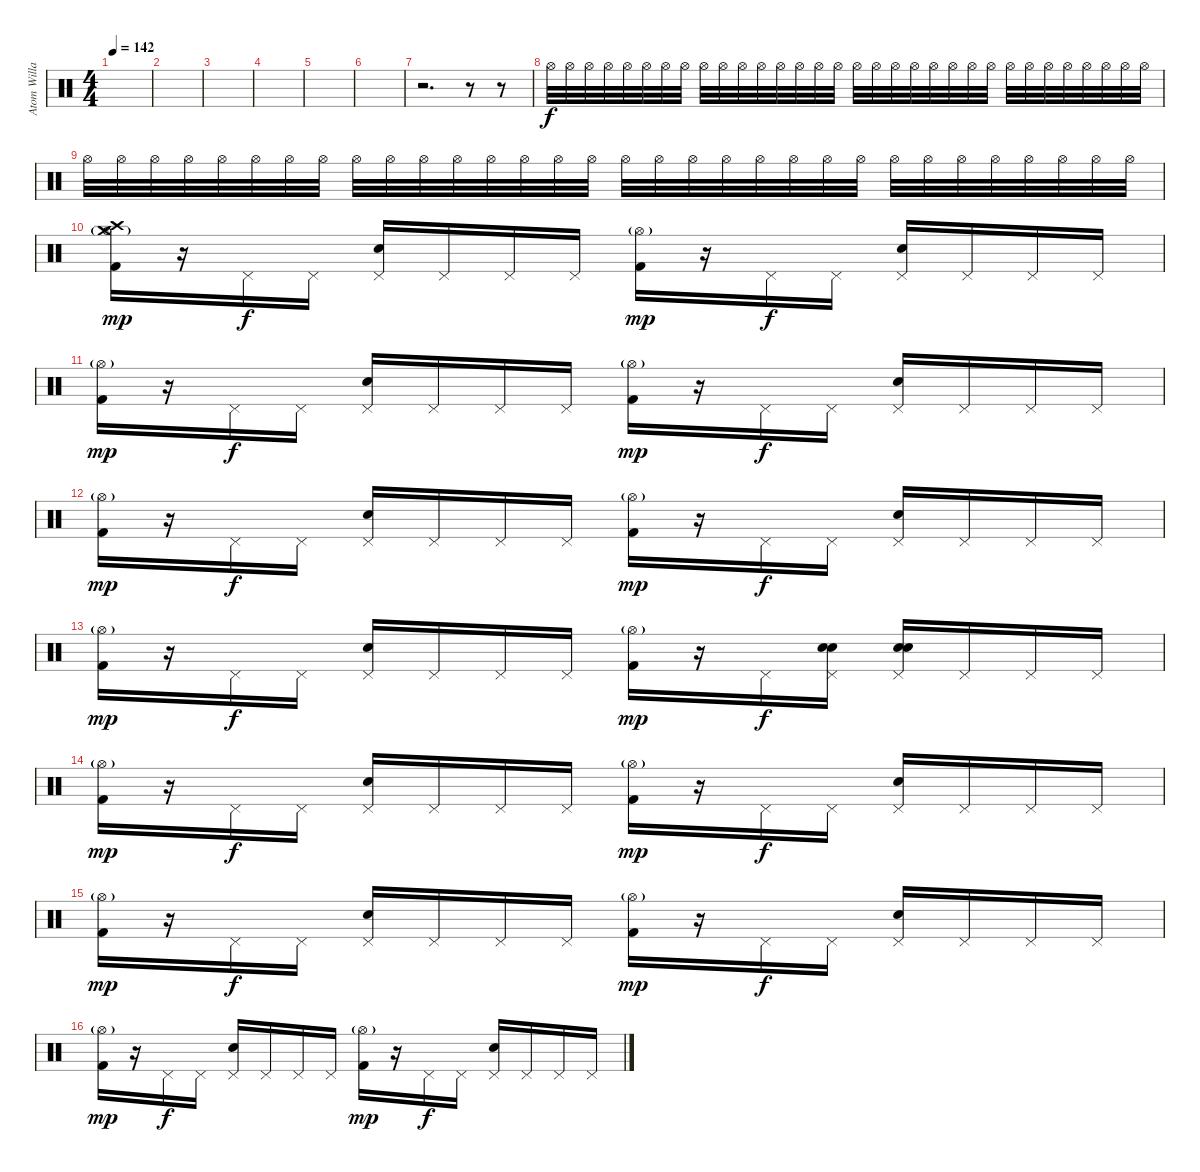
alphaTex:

\track ("Atom Willard" "Atom Willa") {instrument percussion}
\staff {score}
\articulation defaults
\ts (4 4)
\tempo 142
\clef neutral
\ks c
|
|
|
|
|
|
r.2{d} r.8 r.8{volume 0} |
"Hi-Hat (open)".32{volume 14} "Hi-Hat (open)".32 "Hi-Hat (open)".32 "Hi-Hat (open)".32 "Hi-Hat (open)".32 "Hi-Hat (open)".32 "Hi-Hat (open)".32 "Hi-Hat (open)".32 "Hi-Hat (open)".32 "Hi-Hat (open)".32 "Hi-Hat (open)".32 "Hi-Hat (open)".32 "Hi-Hat (open)".32 "Hi-Hat (open)".32 "Hi-Hat (open)".32 "Hi-Hat (open)".32 "Hi-Hat (open)".32 "Hi-Hat (open)".32 "Hi-Hat (open)".32 "Hi-Hat (open)".32 "Hi-Hat (open)".32 "Hi-Hat (open)".32 "Hi-Hat (open)".32 "Hi-Hat (open)".32 "Hi-Hat (open)".32 "Hi-Hat (open)".32 "Hi-Hat (open)".32 "Hi-Hat (open)".32 "Hi-Hat (open)".32 "Hi-Hat (open)".32 "Hi-Hat (open)".32 "Hi-Hat (open)".32 |
"Hi-Hat (open)".32 "Hi-Hat (open)".32 "Hi-Hat (open)".32 "Hi-Hat (open)".32 "Hi-Hat (open)".32 "Hi-Hat (open)".32 "Hi-Hat (open)".32 "Hi-Hat (open)".32 "Hi-Hat (open)".32 "Hi-Hat (open)".32 "Hi-Hat (open)".32 "Hi-Hat (open)".32 "Hi-Hat (open)".32 "Hi-Hat (open)".32 "Hi-Hat (open)".32 "Hi-Hat (open)".32 "Hi-Hat (open)".32 "Hi-Hat (open)".32 "Hi-Hat (open)".32 "Hi-Hat (open)".32 "Hi-Hat (open)".32 "Hi-Hat (open)".32 "Hi-Hat (open)".32 "Hi-Hat (open)".32 "Hi-Hat (open)".32 "Hi-Hat (open)".32 "Hi-Hat (open)".32 "Hi-Hat (open)".32 "Hi-Hat (open)".32 "Hi-Hat (open)".32 "Hi-Hat (open)".32 "Hi-Hat (open)".32 |
("Crash high (hit)" "Crash medium (hit)" "Hi-Hat (open)"{g} "Kick (hit) 2").16{dy mp} r.16 "Pedal Hi-Hat (hit)".16{dy f} "Pedal Hi-Hat (hit)".16 ("Pedal Hi-Hat (hit)" "Electric Snare (hit)").16 "Pedal Hi-Hat (hit)".16 "Pedal Hi-Hat (hit)".16 "Pedal Hi-Hat (hit)".16 ("Hi-Hat (open)"{g} "Kick (hit) 2").16{dy mp} r.16 "Pedal Hi-Hat (hit)".16{dy f} "Pedal Hi-Hat (hit)".16 ("Pedal Hi-Hat (hit)" "Electric Snare (hit)").16 "Pedal Hi-Hat (hit)".16 "Pedal Hi-Hat (hit)".16 "Pedal Hi-Hat (hit)".16 |
("Hi-Hat (open)"{g} "Kick (hit) 2").16{dy mp} r.16 "Pedal Hi-Hat (hit)".16{dy f} "Pedal Hi-Hat (hit)".16 ("Pedal Hi-Hat (hit)" "Electric Snare (hit)").16 "Pedal Hi-Hat (hit)".16 "Pedal Hi-Hat (hit)".16 "Pedal Hi-Hat (hit)".16 ("Hi-Hat (open)"{g} "Kick (hit) 2").16{dy mp} r.16 "Pedal Hi-Hat (hit)".16{dy f} "Pedal Hi-Hat (hit)".16 ("Pedal Hi-Hat (hit)" "Electric Snare (hit)").16 "Pedal Hi-Hat (hit)".16 "Pedal Hi-Hat (hit)".16 "Pedal Hi-Hat (hit)".16 |
("Hi-Hat (open)"{g} "Kick (hit) 2").16{dy mp} r.16 "Pedal Hi-Hat (hit)".16{dy f} "Pedal Hi-Hat (hit)".16 ("Pedal Hi-Hat (hit)" "Electric Snare (hit)").16 "Pedal Hi-Hat (hit)".16 "Pedal Hi-Hat (hit)".16 "Pedal Hi-Hat (hit)".16 ("Hi-Hat (open)"{g} "Kick (hit) 2").16{dy mp} r.16 "Pedal Hi-Hat (hit)".16{dy f} "Pedal Hi-Hat (hit)".16 ("Pedal Hi-Hat (hit)" "Electric Snare (hit)").16 "Pedal Hi-Hat (hit)".16 "Pedal Hi-Hat (hit)".16 "Pedal Hi-Hat (hit)".16 |
("Hi-Hat (open)"{g} "Kick (hit) 2").16{dy mp} r.16 "Pedal Hi-Hat (hit)".16{dy f} "Pedal Hi-Hat (hit)".16 ("Pedal Hi-Hat (hit)" "Electric Snare (hit)").16 "Pedal Hi-Hat (hit)".16 "Pedal Hi-Hat (hit)".16 "Pedal Hi-Hat (hit)".16 ("Hi-Hat (open)"{g} "Kick (hit) 2").16{dy mp} r.16 "Pedal Hi-Hat (hit)".16{dy f} ("Pedal Hi-Hat (hit)" "Snare (hit) 2" "Electric Snare (hit)").16 ("Pedal Hi-Hat (hit)" "Snare (hit) 2" "Electric Snare (hit)").16 "Pedal Hi-Hat (hit)".16 "Pedal Hi-Hat (hit)".16 "Pedal Hi-Hat (hit)".16 |
("Hi-Hat (open)"{g} "Kick (hit) 2").16{dy mp} r.16 "Pedal Hi-Hat (hit)".16{dy f} "Pedal Hi-Hat (hit)".16 ("Pedal Hi-Hat (hit)" "Electric Snare (hit)").16 "Pedal Hi-Hat (hit)".16 "Pedal Hi-Hat (hit)".16 "Pedal Hi-Hat (hit)".16 ("Hi-Hat (open)"{g} "Kick (hit) 2").16{dy mp} r.16 "Pedal Hi-Hat (hit)".16{dy f} "Pedal Hi-Hat (hit)".16 ("Pedal Hi-Hat (hit)" "Electric Snare (hit)").16 "Pedal Hi-Hat (hit)".16 "Pedal Hi-Hat (hit)".16 "Pedal Hi-Hat (hit)".16 |
("Hi-Hat (open)"{g} "Kick (hit) 2").16{dy mp} r.16 "Pedal Hi-Hat (hit)".16{dy f} "Pedal Hi-Hat (hit)".16 ("Pedal Hi-Hat (hit)" "Electric Snare (hit)").16 "Pedal Hi-Hat (hit)".16 "Pedal Hi-Hat (hit)".16 "Pedal Hi-Hat (hit)".16 ("Hi-Hat (open)"{g} "Kick (hit) 2").16{dy mp} r.16 "Pedal Hi-Hat (hit)".16{dy f} "Pedal Hi-Hat (hit)".16 ("Pedal Hi-Hat (hit)" "Electric Snare (hit)").16 "Pedal Hi-Hat (hit)".16 "Pedal Hi-Hat (hit)".16 "Pedal Hi-Hat (hit)".16 |
("Hi-Hat (open)"{g} "Kick (hit) 2").16{dy mp} r.16 "Pedal Hi-Hat (hit)".16{dy f} "Pedal Hi-Hat (hit)".16 ("Pedal Hi-Hat (hit)" "Electric Snare (hit)").16 "Pedal Hi-Hat (hit)".16 "Pedal Hi-Hat (hit)".16 "Pedal Hi-Hat (hit)".16 ("Hi-Hat (open)"{g} "Kick (hit) 2").16{dy mp} r.16 "Pedal Hi-Hat (hit)".16{dy f} "Pedal Hi-Hat (hit)".16 ("Pedal Hi-Hat (hit)" "Electric Snare (hit)").16 "Pedal Hi-Hat (hit)".16 "Pedal Hi-Hat (hit)".16 "Pedal Hi-Hat (hit)".16
